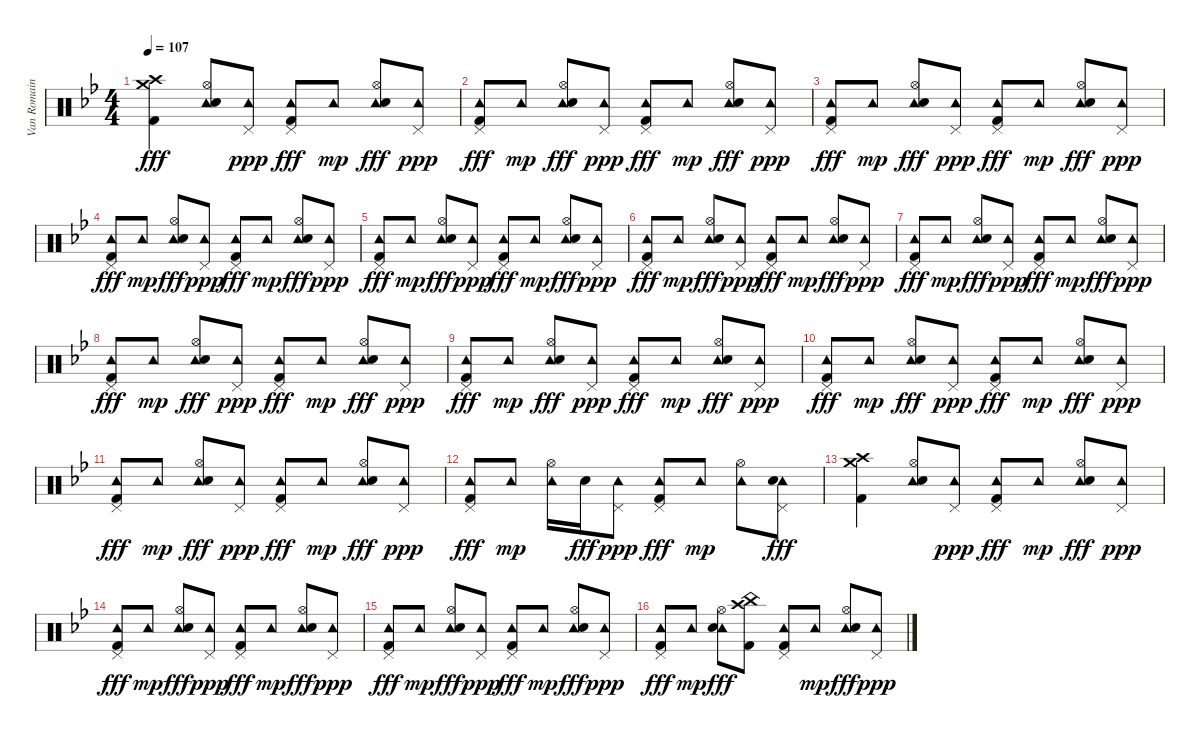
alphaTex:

\track ("Van Romaine" "Van Romain") {instrument percussion}
\staff {score}
\articulation defaults
\ts (4 4)
\tempo 107
\clef neutral
\ks bb
("Crash high (hit)" "Crash medium (hit)" "Kick (hit) 2").4{dy fff} ("Tambourine (hit)" "Hi-Hat (open)" "Electric Snare (hit)").8 ("Tambourine (hit)" "Pedal Hi-Hat (hit)").8{dy ppp} ("Tambourine (hit)" "Pedal Hi-Hat (hit)" "Kick (hit) 2").8{dy fff} "Tambourine (hit)".8{dy mp} ("Tambourine (hit)" "Hi-Hat (open)" "Electric Snare (hit)").8{dy fff} ("Tambourine (hit)" "Pedal Hi-Hat (hit)").8{dy ppp} |
("Tambourine (hit)" "Pedal Hi-Hat (hit)" "Kick (hit) 2").8{dy fff} "Tambourine (hit)".8{dy mp} ("Tambourine (hit)" "Hi-Hat (open)" "Electric Snare (hit)").8{dy fff} ("Tambourine (hit)" "Pedal Hi-Hat (hit)").8{dy ppp} ("Tambourine (hit)" "Pedal Hi-Hat (hit)" "Kick (hit) 2").8{dy fff} "Tambourine (hit)".8{dy mp} ("Tambourine (hit)" "Hi-Hat (open)" "Electric Snare (hit)").8{dy fff} ("Tambourine (hit)" "Pedal Hi-Hat (hit)").8{dy ppp} |
("Tambourine (hit)" "Pedal Hi-Hat (hit)" "Kick (hit) 2").8{dy fff} "Tambourine (hit)".8{dy mp} ("Tambourine (hit)" "Hi-Hat (open)" "Electric Snare (hit)").8{dy fff} ("Tambourine (hit)" "Pedal Hi-Hat (hit)").8{dy ppp} ("Tambourine (hit)" "Pedal Hi-Hat (hit)" "Kick (hit) 2").8{dy fff} "Tambourine (hit)".8{dy mp} ("Tambourine (hit)" "Hi-Hat (open)" "Electric Snare (hit)").8{dy fff} ("Tambourine (hit)" "Pedal Hi-Hat (hit)").8{dy ppp} |
("Tambourine (hit)" "Pedal Hi-Hat (hit)" "Kick (hit) 2").8{dy fff} "Tambourine (hit)".8{dy mp} ("Tambourine (hit)" "Hi-Hat (open)" "Electric Snare (hit)").8{dy fff} ("Tambourine (hit)" "Pedal Hi-Hat (hit)").8{dy ppp} ("Tambourine (hit)" "Pedal Hi-Hat (hit)" "Kick (hit) 2").8{dy fff} "Tambourine (hit)".8{dy mp} ("Tambourine (hit)" "Hi-Hat (open)" "Electric Snare (hit)").8{dy fff} ("Tambourine (hit)" "Pedal Hi-Hat (hit)").8{dy ppp} |
("Tambourine (hit)" "Pedal Hi-Hat (hit)" "Kick (hit) 2").8{dy fff} "Tambourine (hit)".8{dy mp} ("Tambourine (hit)" "Hi-Hat (open)" "Electric Snare (hit)").8{dy fff} ("Tambourine (hit)" "Pedal Hi-Hat (hit)").8{dy ppp} ("Tambourine (hit)" "Pedal Hi-Hat (hit)" "Kick (hit) 2").8{dy fff} "Tambourine (hit)".8{dy mp} ("Tambourine (hit)" "Hi-Hat (open)" "Electric Snare (hit)").8{dy fff} ("Tambourine (hit)" "Pedal Hi-Hat (hit)").8{dy ppp} |
("Tambourine (hit)" "Pedal Hi-Hat (hit)" "Kick (hit) 2").8{dy fff} "Tambourine (hit)".8{dy mp} ("Tambourine (hit)" "Hi-Hat (open)" "Electric Snare (hit)").8{dy fff} ("Tambourine (hit)" "Pedal Hi-Hat (hit)").8{dy ppp} ("Tambourine (hit)" "Pedal Hi-Hat (hit)" "Kick (hit) 2").8{dy fff} "Tambourine (hit)".8{dy mp} ("Tambourine (hit)" "Hi-Hat (open)" "Electric Snare (hit)").8{dy fff} ("Tambourine (hit)" "Pedal Hi-Hat (hit)").8{dy ppp} |
("Tambourine (hit)" "Pedal Hi-Hat (hit)" "Kick (hit) 2").8{dy fff} "Tambourine (hit)".8{dy mp} ("Tambourine (hit)" "Hi-Hat (open)" "Electric Snare (hit)").8{dy fff} ("Tambourine (hit)" "Pedal Hi-Hat (hit)").8{dy ppp} ("Tambourine (hit)" "Pedal Hi-Hat (hit)" "Kick (hit) 2").8{dy fff} "Tambourine (hit)".8{dy mp} ("Tambourine (hit)" "Hi-Hat (open)" "Electric Snare (hit)").8{dy fff} ("Tambourine (hit)" "Pedal Hi-Hat (hit)").8{dy ppp} |
("Tambourine (hit)" "Pedal Hi-Hat (hit)" "Kick (hit) 2").8{dy fff} "Tambourine (hit)".8{dy mp} ("Tambourine (hit)" "Hi-Hat (open)" "Electric Snare (hit)").8{dy fff} ("Tambourine (hit)" "Pedal Hi-Hat (hit)").8{dy ppp} ("Tambourine (hit)" "Pedal Hi-Hat (hit)" "Kick (hit) 2").8{dy fff} "Tambourine (hit)".8{dy mp} ("Tambourine (hit)" "Hi-Hat (open)" "Electric Snare (hit)").8{dy fff} ("Tambourine (hit)" "Pedal Hi-Hat (hit)").8{dy ppp} |
("Tambourine (hit)" "Pedal Hi-Hat (hit)" "Kick (hit) 2").8{dy fff} "Tambourine (hit)".8{dy mp} ("Tambourine (hit)" "Hi-Hat (open)" "Electric Snare (hit)").8{dy fff} ("Tambourine (hit)" "Pedal Hi-Hat (hit)").8{dy ppp} ("Tambourine (hit)" "Pedal Hi-Hat (hit)" "Kick (hit) 2").8{dy fff} "Tambourine (hit)".8{dy mp} ("Tambourine (hit)" "Hi-Hat (open)" "Electric Snare (hit)").8{dy fff} ("Tambourine (hit)" "Pedal Hi-Hat (hit)").8{dy ppp} |
("Tambourine (hit)" "Pedal Hi-Hat (hit)" "Kick (hit) 2").8{dy fff} "Tambourine (hit)".8{dy mp} ("Tambourine (hit)" "Hi-Hat (open)" "Electric Snare (hit)").8{dy fff} ("Tambourine (hit)" "Pedal Hi-Hat (hit)").8{dy ppp} ("Tambourine (hit)" "Pedal Hi-Hat (hit)" "Kick (hit) 2").8{dy fff} "Tambourine (hit)".8{dy mp} ("Tambourine (hit)" "Hi-Hat (open)" "Electric Snare (hit)").8{dy fff} ("Tambourine (hit)" "Pedal Hi-Hat (hit)").8{dy ppp} |
("Tambourine (hit)" "Pedal Hi-Hat (hit)" "Kick (hit) 2").8{dy fff} "Tambourine (hit)".8{dy mp} ("Tambourine (hit)" "Hi-Hat (open)" "Electric Snare (hit)").8{dy fff} ("Tambourine (hit)" "Pedal Hi-Hat (hit)").8{dy ppp} ("Tambourine (hit)" "Pedal Hi-Hat (hit)" "Kick (hit) 2").8{dy fff} "Tambourine (hit)".8{dy mp} ("Tambourine (hit)" "Hi-Hat (open)" "Electric Snare (hit)").8{dy fff} ("Tambourine (hit)" "Pedal Hi-Hat (hit)").8{dy ppp} |
("Tambourine (hit)" "Pedal Hi-Hat (hit)" "Kick (hit) 2").8{dy fff} "Tambourine (hit)".8{dy mp} ("Tambourine (hit)" "Hi-Hat (open)").16 "Electric Snare (hit)".16{dy fff} ("Tambourine (hit)" "Pedal Hi-Hat (hit)").8{dy ppp} ("Tambourine (hit)" "Pedal Hi-Hat (hit)" "Kick (hit) 2").8{dy fff} "Tambourine (hit)".8{dy mp} ("Tambourine (hit)" "Hi-Hat (open)").8 ("Tambourine (hit)" "Pedal Hi-Hat (hit)" "Electric Snare (hit)").8{dy fff} |
("Crash high (hit)" "Crash medium (hit)" "Kick (hit) 2").4 ("Tambourine (hit)" "Hi-Hat (open)" "Electric Snare (hit)").8 ("Tambourine (hit)" "Pedal Hi-Hat (hit)").8{dy ppp} ("Tambourine (hit)" "Pedal Hi-Hat (hit)" "Kick (hit) 2").8{dy fff} "Tambourine (hit)".8{dy mp} ("Tambourine (hit)" "Hi-Hat (open)" "Electric Snare (hit)").8{dy fff} ("Tambourine (hit)" "Pedal Hi-Hat (hit)").8{dy ppp} |
("Tambourine (hit)" "Pedal Hi-Hat (hit)" "Kick (hit) 2").8{dy fff} "Tambourine (hit)".8{dy mp} ("Tambourine (hit)" "Hi-Hat (open)" "Electric Snare (hit)").8{dy fff} ("Tambourine (hit)" "Pedal Hi-Hat (hit)").8{dy ppp} ("Tambourine (hit)" "Pedal Hi-Hat (hit)" "Kick (hit) 2").8{dy fff} "Tambourine (hit)".8{dy mp} ("Tambourine (hit)" "Hi-Hat (open)" "Electric Snare (hit)").8{dy fff} ("Tambourine (hit)" "Pedal Hi-Hat (hit)").8{dy ppp} |
("Tambourine (hit)" "Pedal Hi-Hat (hit)" "Kick (hit) 2").8{dy fff} "Tambourine (hit)".8{dy mp} ("Tambourine (hit)" "Hi-Hat (open)" "Electric Snare (hit)").8{dy fff} ("Tambourine (hit)" "Pedal Hi-Hat (hit)").8{dy ppp} ("Tambourine (hit)" "Pedal Hi-Hat (hit)" "Kick (hit) 2").8{dy fff} "Tambourine (hit)".8{dy mp} ("Tambourine (hit)" "Hi-Hat (open)" "Electric Snare (hit)").8{dy fff} ("Tambourine (hit)" "Pedal Hi-Hat (hit)").8{dy ppp} |
("Tambourine (hit)" "Pedal Hi-Hat (hit)" "Kick (hit) 2").8{dy fff} "Tambourine (hit)".8{dy mp} ("Tambourine (hit)" "Hi-Hat (open)" "Electric Snare (hit)").8{dy fff} ("China (hit)" "Crash high (hit)" "Kick (hit) 2").8 ("Tambourine (hit)" "Pedal Hi-Hat (hit)" "Kick (hit) 2").8 "Tambourine (hit)".8{dy mp} ("Tambourine (hit)" "Hi-Hat (open)" "Electric Snare (hit)").8{dy fff} ("Tambourine (hit)" "Pedal Hi-Hat (hit)").8{dy ppp}
